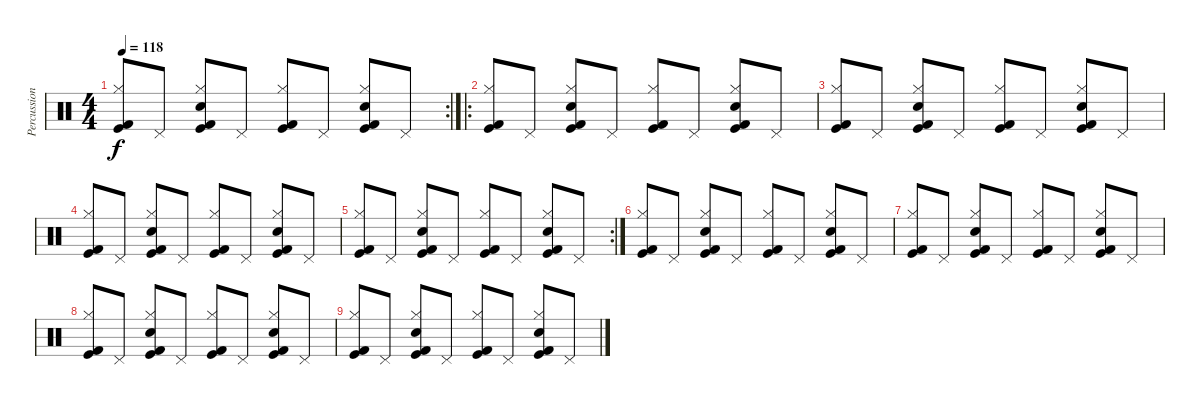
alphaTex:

\track ("Percussion" "Percussion") {instrument percussion}
\staff {score}
\articulation defaults
\rc 2
\ts (4 4)
\tempo 118
\clef neutral
\ks c
("Kick (hit)" "Hi-Hat (closed)" "Kick (hit) 2").8{dy f} "Pedal Hi-Hat (hit)".8 ("Snare (hit) 2" "Kick (hit)" "Hi-Hat (closed)" "Kick (hit) 2").8 "Pedal Hi-Hat (hit)".8 ("Kick (hit)" "Hi-Hat (closed)" "Kick (hit) 2").8 "Pedal Hi-Hat (hit)".8 ("Snare (hit) 2" "Kick (hit)" "Hi-Hat (closed)" "Kick (hit) 2").8 "Pedal Hi-Hat (hit)".8 |
\ro
("Kick (hit)" "Hi-Hat (closed)" "Kick (hit) 2").8 "Pedal Hi-Hat (hit)".8 ("Snare (hit) 2" "Kick (hit)" "Hi-Hat (closed)" "Kick (hit) 2").8 "Pedal Hi-Hat (hit)".8 ("Kick (hit)" "Hi-Hat (closed)" "Kick (hit) 2").8 "Pedal Hi-Hat (hit)".8 ("Snare (hit) 2" "Kick (hit)" "Hi-Hat (closed)" "Kick (hit) 2").8 "Pedal Hi-Hat (hit)".8 |
("Kick (hit)" "Hi-Hat (closed)" "Kick (hit) 2").8 "Pedal Hi-Hat (hit)".8 ("Snare (hit) 2" "Kick (hit)" "Hi-Hat (closed)" "Kick (hit) 2").8 "Pedal Hi-Hat (hit)".8 ("Kick (hit)" "Hi-Hat (closed)" "Kick (hit) 2").8 "Pedal Hi-Hat (hit)".8 ("Snare (hit) 2" "Kick (hit)" "Hi-Hat (closed)" "Kick (hit) 2").8 "Pedal Hi-Hat (hit)".8 |
("Kick (hit)" "Hi-Hat (closed)" "Kick (hit) 2").8 "Pedal Hi-Hat (hit)".8 ("Snare (hit) 2" "Kick (hit)" "Hi-Hat (closed)" "Kick (hit) 2").8 "Pedal Hi-Hat (hit)".8 ("Kick (hit)" "Hi-Hat (closed)" "Kick (hit) 2").8 "Pedal Hi-Hat (hit)".8 ("Snare (hit) 2" "Kick (hit)" "Hi-Hat (closed)" "Kick (hit) 2").8 "Pedal Hi-Hat (hit)".8 |
\rc 2
("Kick (hit)" "Hi-Hat (closed)" "Kick (hit) 2").8 "Pedal Hi-Hat (hit)".8 ("Snare (hit) 2" "Kick (hit)" "Hi-Hat (closed)" "Kick (hit) 2").8 "Pedal Hi-Hat (hit)".8 ("Kick (hit)" "Hi-Hat (closed)" "Kick (hit) 2").8 "Pedal Hi-Hat (hit)".8 ("Snare (hit) 2" "Kick (hit)" "Hi-Hat (closed)" "Kick (hit) 2").8 "Pedal Hi-Hat (hit)".8 |
("Kick (hit)" "Hi-Hat (closed)" "Kick (hit) 2").8 "Pedal Hi-Hat (hit)".8 ("Snare (hit) 2" "Kick (hit)" "Hi-Hat (closed)" "Kick (hit) 2").8 "Pedal Hi-Hat (hit)".8 ("Kick (hit)" "Hi-Hat (closed)" "Kick (hit) 2").8 "Pedal Hi-Hat (hit)".8 ("Snare (hit) 2" "Kick (hit)" "Hi-Hat (closed)" "Kick (hit) 2").8 "Pedal Hi-Hat (hit)".8 |
("Kick (hit)" "Hi-Hat (closed)" "Kick (hit) 2").8 "Pedal Hi-Hat (hit)".8 ("Snare (hit) 2" "Kick (hit)" "Hi-Hat (closed)" "Kick (hit) 2").8 "Pedal Hi-Hat (hit)".8 ("Kick (hit)" "Hi-Hat (closed)" "Kick (hit) 2").8 "Pedal Hi-Hat (hit)".8 ("Snare (hit) 2" "Kick (hit)" "Hi-Hat (closed)" "Kick (hit) 2").8 "Pedal Hi-Hat (hit)".8 |
("Kick (hit)" "Hi-Hat (closed)" "Kick (hit) 2").8 "Pedal Hi-Hat (hit)".8 ("Snare (hit) 2" "Kick (hit)" "Hi-Hat (closed)" "Kick (hit) 2").8 "Pedal Hi-Hat (hit)".8 ("Kick (hit)" "Hi-Hat (closed)" "Kick (hit) 2").8 "Pedal Hi-Hat (hit)".8 ("Snare (hit) 2" "Kick (hit)" "Hi-Hat (closed)" "Kick (hit) 2").8 "Pedal Hi-Hat (hit)".8 |
("Kick (hit)" "Hi-Hat (closed)" "Kick (hit) 2").8 "Pedal Hi-Hat (hit)".8 ("Snare (hit) 2" "Kick (hit)" "Hi-Hat (closed)" "Kick (hit) 2").8 "Pedal Hi-Hat (hit)".8 ("Kick (hit)" "Hi-Hat (closed)" "Kick (hit) 2").8 "Pedal Hi-Hat (hit)".8 ("Snare (hit) 2" "Kick (hit)" "Hi-Hat (closed)" "Kick (hit) 2").8 "Pedal Hi-Hat (hit)".8
